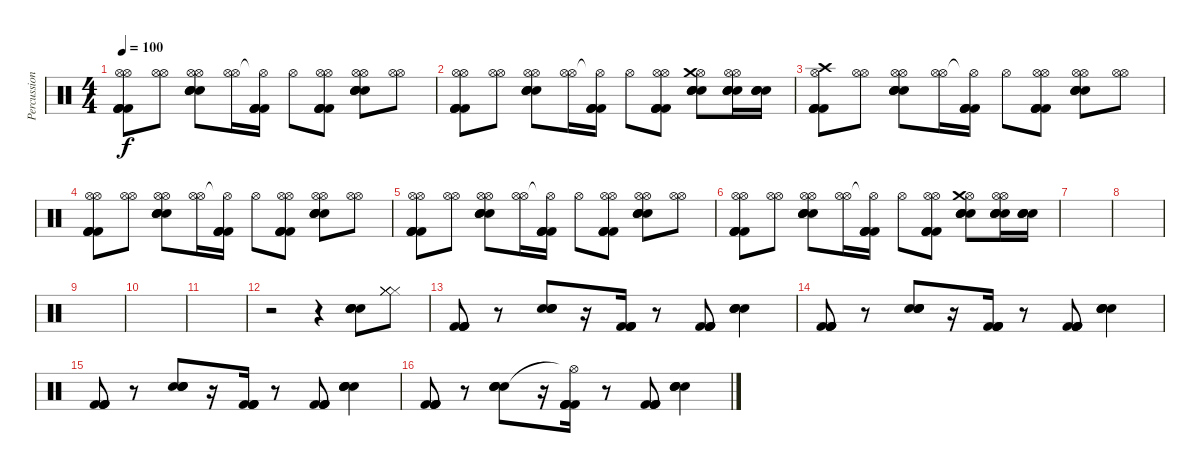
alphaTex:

\track ("Percussion" "Percussion") {instrument percussion}
\staff {score}
\articulation defaults
\ts (4 4)
\tempo 100
\clef neutral
\ks c
("Hi-Hat (open)" "Kick (hit) 2" "Kick (hit) 2" "Kick (hit) 2" "Kick (hit) 2" "Hi-Hat (open)").8{dy f} ("Hi-Hat (open)" "Hi-Hat (open)").8 ("Hi-Hat (open)" "Electric Snare (hit)" "Electric Snare (hit)" "Electric Snare (hit)" "Electric Snare (hit)" "Hi-Hat (open)").8 ("Hi-Hat (open)" "Hi-Hat (open)").16 ("Hi-Hat (open)"{t} "Kick (hit) 2" "Kick (hit) 2" "Kick (hit) 2" "Kick (hit) 2").16 "Hi-Hat (open)".8 ("Hi-Hat (open)" "Kick (hit) 2" "Kick (hit) 2" "Kick (hit) 2" "Kick (hit) 2" "Hi-Hat (open)").8 ("Hi-Hat (open)" "Electric Snare (hit)" "Electric Snare (hit)" "Electric Snare (hit)" "Electric Snare (hit)" "Hi-Hat (open)").8 ("Hi-Hat (open)" "Hi-Hat (open)").8 |
("Hi-Hat (open)" "Kick (hit) 2" "Kick (hit) 2" "Kick (hit) 2" "Kick (hit) 2" "Hi-Hat (open)").8 ("Hi-Hat (open)" "Hi-Hat (open)").8 ("Hi-Hat (open)" "Electric Snare (hit)" "Electric Snare (hit)" "Electric Snare (hit)" "Electric Snare (hit)" "Hi-Hat (open)").8 ("Hi-Hat (open)" "Hi-Hat (open)").16 ("Hi-Hat (open)"{t} "Kick (hit) 2" "Kick (hit) 2" "Kick (hit) 2" "Kick (hit) 2").16 "Hi-Hat (open)".8 ("Hi-Hat (open)" "Kick (hit) 2" "Kick (hit) 2" "Kick (hit) 2" "Kick (hit) 2" "Hi-Hat (open)").8 ("Hi-Hat (open)" "Electric Snare (hit)" "Electric Snare (hit)" "Electric Snare (hit)" "Electric Snare (hit)" "Crash medium (hit)").8 ("Hi-Hat (open)" "Electric Snare (hit)" "Electric Snare (hit)" "Electric Snare (hit)" "Electric Snare (hit)" "Hi-Hat (open)").16 ("Electric Snare (hit)" "Electric Snare (hit)" "Electric Snare (hit)" "Electric Snare (hit)").16 |
("Hi-Hat (open)" "Kick (hit) 2" "Kick (hit) 2" "Kick (hit) 2" "Kick (hit) 2" "Crash high (hit)").8 ("Hi-Hat (open)" "Hi-Hat (open)").8 ("Hi-Hat (open)" "Electric Snare (hit)" "Electric Snare (hit)" "Electric Snare (hit)" "Electric Snare (hit)" "Hi-Hat (open)").8 ("Hi-Hat (open)" "Hi-Hat (open)").16 ("Hi-Hat (open)"{t} "Kick (hit) 2" "Kick (hit) 2" "Kick (hit) 2" "Kick (hit) 2").16 "Hi-Hat (open)".8 ("Hi-Hat (open)" "Kick (hit) 2" "Kick (hit) 2" "Kick (hit) 2" "Kick (hit) 2" "Hi-Hat (open)").8 ("Hi-Hat (open)" "Electric Snare (hit)" "Electric Snare (hit)" "Electric Snare (hit)" "Electric Snare (hit)" "Hi-Hat (open)").8 ("Hi-Hat (open)" "Hi-Hat (open)").8 |
("Hi-Hat (open)" "Kick (hit) 2" "Kick (hit) 2" "Kick (hit) 2" "Kick (hit) 2" "Hi-Hat (open)").8 ("Hi-Hat (open)" "Hi-Hat (open)").8 ("Hi-Hat (open)" "Electric Snare (hit)" "Electric Snare (hit)" "Electric Snare (hit)" "Electric Snare (hit)" "Hi-Hat (open)").8 ("Hi-Hat (open)" "Hi-Hat (open)").16 ("Hi-Hat (open)"{t} "Kick (hit) 2" "Kick (hit) 2" "Kick (hit) 2" "Kick (hit) 2").16 "Hi-Hat (open)".8 ("Hi-Hat (open)" "Kick (hit) 2" "Kick (hit) 2" "Kick (hit) 2" "Kick (hit) 2" "Hi-Hat (open)").8 ("Hi-Hat (open)" "Electric Snare (hit)" "Electric Snare (hit)" "Electric Snare (hit)" "Electric Snare (hit)" "Hi-Hat (open)").8 ("Hi-Hat (open)" "Hi-Hat (open)").8 |
("Hi-Hat (open)" "Kick (hit) 2" "Kick (hit) 2" "Kick (hit) 2" "Kick (hit) 2" "Hi-Hat (open)").8 ("Hi-Hat (open)" "Hi-Hat (open)").8 ("Hi-Hat (open)" "Electric Snare (hit)" "Electric Snare (hit)" "Electric Snare (hit)" "Electric Snare (hit)" "Hi-Hat (open)").8 ("Hi-Hat (open)" "Hi-Hat (open)").16 ("Hi-Hat (open)"{t} "Kick (hit) 2" "Kick (hit) 2" "Kick (hit) 2" "Kick (hit) 2").16 "Hi-Hat (open)".8 ("Hi-Hat (open)" "Kick (hit) 2" "Kick (hit) 2" "Kick (hit) 2" "Kick (hit) 2" "Hi-Hat (open)").8 ("Hi-Hat (open)" "Electric Snare (hit)" "Electric Snare (hit)" "Electric Snare (hit)" "Electric Snare (hit)" "Hi-Hat (open)").8 ("Hi-Hat (open)" "Hi-Hat (open)").8 |
("Hi-Hat (open)" "Kick (hit) 2" "Kick (hit) 2" "Kick (hit) 2" "Kick (hit) 2" "Hi-Hat (open)").8 ("Hi-Hat (open)" "Hi-Hat (open)").8 ("Hi-Hat (open)" "Electric Snare (hit)" "Electric Snare (hit)" "Electric Snare (hit)" "Electric Snare (hit)" "Hi-Hat (open)").8 ("Hi-Hat (open)" "Hi-Hat (open)").16 ("Hi-Hat (open)"{t} "Kick (hit) 2" "Kick (hit) 2" "Kick (hit) 2" "Kick (hit) 2").16 "Hi-Hat (open)".8 ("Hi-Hat (open)" "Kick (hit) 2" "Kick (hit) 2" "Kick (hit) 2" "Kick (hit) 2" "Hi-Hat (open)").8 ("Hi-Hat (open)" "Electric Snare (hit)" "Electric Snare (hit)" "Electric Snare (hit)" "Electric Snare (hit)" "Crash medium (hit)").8 ("Hi-Hat (open)" "Electric Snare (hit)" "Electric Snare (hit)" "Electric Snare (hit)" "Electric Snare (hit)" "Hi-Hat (open)").16 ("Electric Snare (hit)" "Electric Snare (hit)" "Electric Snare (hit)" "Electric Snare (hit)").16 |
|
|
|
|
|
r.2 r.4 ("Electric Snare (hit)" "Electric Snare (hit)" "Electric Snare (hit)" "Electric Snare (hit)").8 ("Hi-Hat (closed)" "Hi-Hat (closed)" "Hi-Hat (closed)" "Hi-Hat (closed)").8 |
("Kick (hit) 2" "Kick (hit) 2" "Kick (hit) 2" "Kick (hit) 2").8 r.8 ("Electric Snare (hit)" "Electric Snare (hit)" "Electric Snare (hit)" "Electric Snare (hit)").8 r.16 ("Kick (hit) 2" "Kick (hit) 2" "Kick (hit) 2" "Kick (hit) 2").16 r.8 ("Kick (hit) 2" "Kick (hit) 2" "Kick (hit) 2" "Kick (hit) 2").8 ("Electric Snare (hit)" "Electric Snare (hit)" "Electric Snare (hit)" "Electric Snare (hit)").4 |
("Kick (hit) 2" "Kick (hit) 2" "Kick (hit) 2" "Kick (hit) 2").8 r.8 ("Electric Snare (hit)" "Electric Snare (hit)" "Electric Snare (hit)" "Electric Snare (hit)").8 r.16 ("Kick (hit) 2" "Kick (hit) 2" "Kick (hit) 2" "Kick (hit) 2").16 r.8 ("Kick (hit) 2" "Kick (hit) 2" "Kick (hit) 2" "Kick (hit) 2").8 ("Electric Snare (hit)" "Electric Snare (hit)" "Electric Snare (hit)" "Electric Snare (hit)").4 |
("Kick (hit) 2" "Kick (hit) 2" "Kick (hit) 2" "Kick (hit) 2").8 r.8 ("Electric Snare (hit)" "Electric Snare (hit)" "Electric Snare (hit)" "Electric Snare (hit)").8 r.16 ("Kick (hit) 2" "Kick (hit) 2" "Kick (hit) 2" "Kick (hit) 2").16 r.8 ("Kick (hit) 2" "Kick (hit) 2" "Kick (hit) 2" "Kick (hit) 2").8 ("Electric Snare (hit)" "Electric Snare (hit)" "Electric Snare (hit)" "Electric Snare (hit)").4 |
("Kick (hit) 2" "Kick (hit) 2" "Kick (hit) 2" "Kick (hit) 2").8 r.8 ("Electric Snare (hit)" "Electric Snare (hit)" "Electric Snare (hit)" "Electric Snare (hit)").8 r.16 ("Hi-Hat (open)"{t} "Kick (hit) 2" "Kick (hit) 2" "Kick (hit) 2" "Kick (hit) 2").16 r.8 ("Kick (hit) 2" "Kick (hit) 2" "Kick (hit) 2" "Kick (hit) 2").8 ("Electric Snare (hit)" "Electric Snare (hit)" "Electric Snare (hit)" "Electric Snare (hit)").4
